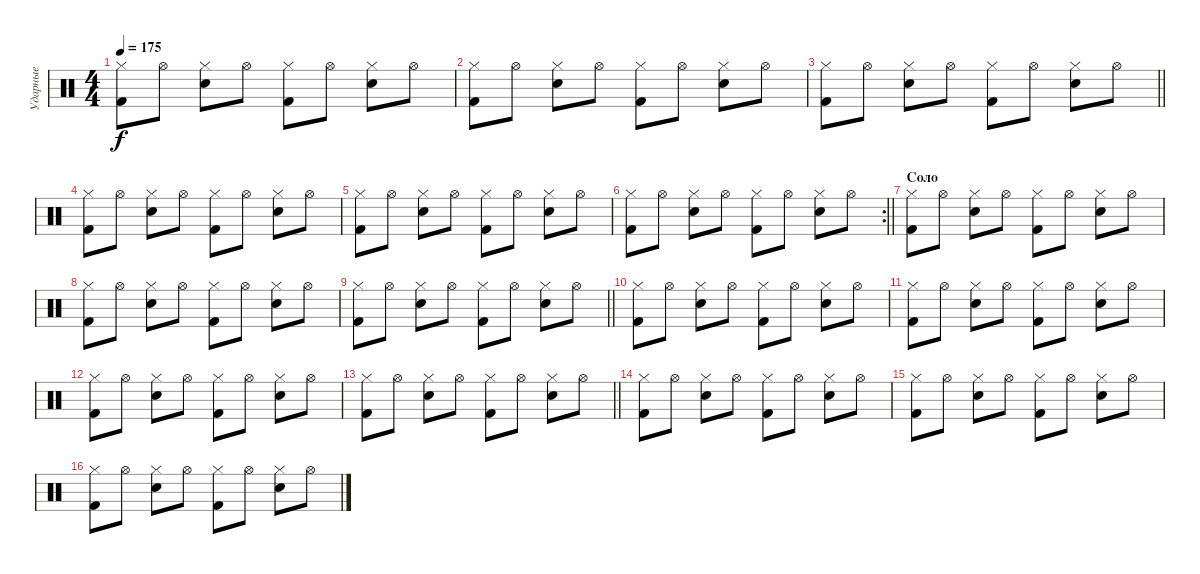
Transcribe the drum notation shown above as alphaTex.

\track ("Ударные" "Ударные") {instrument percussion}
\staff {score}
\articulation defaults
\ts (4 4)
\tempo 175
\clef neutral
\ks c
("Hi-Hat (closed)" "Kick (hit) 2").8{dy f} "Hi-Hat (open)".8 ("Hi-Hat (closed)" "Electric Snare (hit)").8 "Hi-Hat (open)".8 ("Hi-Hat (closed)" "Kick (hit) 2").8 "Hi-Hat (open)".8 ("Hi-Hat (closed)" "Electric Snare (hit)").8 "Hi-Hat (open)".8 |
("Hi-Hat (closed)" "Kick (hit) 2").8 "Hi-Hat (open)".8 ("Hi-Hat (closed)" "Electric Snare (hit)").8 "Hi-Hat (open)".8 ("Hi-Hat (closed)" "Kick (hit) 2").8 "Hi-Hat (open)".8 ("Hi-Hat (closed)" "Electric Snare (hit)").8 "Hi-Hat (open)".8 |
\barLineRight lightlight
("Hi-Hat (closed)" "Kick (hit) 2").8 "Hi-Hat (open)".8 ("Hi-Hat (closed)" "Electric Snare (hit)").8 "Hi-Hat (open)".8 ("Hi-Hat (closed)" "Kick (hit) 2").8 "Hi-Hat (open)".8 ("Hi-Hat (closed)" "Electric Snare (hit)").8 "Hi-Hat (open)".8 |
("Hi-Hat (closed)" "Kick (hit) 2").8 "Hi-Hat (open)".8 ("Hi-Hat (closed)" "Electric Snare (hit)").8 "Hi-Hat (open)".8 ("Hi-Hat (closed)" "Kick (hit) 2").8 "Hi-Hat (open)".8 ("Hi-Hat (closed)" "Electric Snare (hit)").8 "Hi-Hat (open)".8 |
("Hi-Hat (closed)" "Kick (hit) 2").8 "Hi-Hat (open)".8 ("Hi-Hat (closed)" "Electric Snare (hit)").8 "Hi-Hat (open)".8 ("Hi-Hat (closed)" "Kick (hit) 2").8 "Hi-Hat (open)".8 ("Hi-Hat (closed)" "Electric Snare (hit)").8 "Hi-Hat (open)".8 |
\rc 2
\barLineRight lightlight
("Hi-Hat (closed)" "Kick (hit) 2").8 "Hi-Hat (open)".8 ("Hi-Hat (closed)" "Electric Snare (hit)").8 "Hi-Hat (open)".8 ("Hi-Hat (closed)" "Kick (hit) 2").8 "Hi-Hat (open)".8 ("Hi-Hat (closed)" "Electric Snare (hit)").8 "Hi-Hat (open)".8 |
\section ("" "Соло")
("Hi-Hat (closed)" "Kick (hit) 2").8 "Hi-Hat (open)".8 ("Hi-Hat (closed)" "Electric Snare (hit)").8 "Hi-Hat (open)".8 ("Hi-Hat (closed)" "Kick (hit) 2").8 "Hi-Hat (open)".8 ("Hi-Hat (closed)" "Electric Snare (hit)").8 "Hi-Hat (open)".8 |
("Hi-Hat (closed)" "Kick (hit) 2").8 "Hi-Hat (open)".8 ("Hi-Hat (closed)" "Electric Snare (hit)").8 "Hi-Hat (open)".8 ("Hi-Hat (closed)" "Kick (hit) 2").8 "Hi-Hat (open)".8 ("Hi-Hat (closed)" "Electric Snare (hit)").8 "Hi-Hat (open)".8 |
\barLineRight lightlight
("Hi-Hat (closed)" "Kick (hit) 2").8 "Hi-Hat (open)".8 ("Hi-Hat (closed)" "Electric Snare (hit)").8 "Hi-Hat (open)".8 ("Hi-Hat (closed)" "Kick (hit) 2").8 "Hi-Hat (open)".8 ("Hi-Hat (closed)" "Electric Snare (hit)").8 "Hi-Hat (open)".8 |
("Hi-Hat (closed)" "Kick (hit) 2").8 "Hi-Hat (open)".8 ("Hi-Hat (closed)" "Electric Snare (hit)").8 "Hi-Hat (open)".8 ("Hi-Hat (closed)" "Kick (hit) 2").8 "Hi-Hat (open)".8 ("Hi-Hat (closed)" "Electric Snare (hit)").8 "Hi-Hat (open)".8 |
("Hi-Hat (closed)" "Kick (hit) 2").8 "Hi-Hat (open)".8 ("Hi-Hat (closed)" "Electric Snare (hit)").8 "Hi-Hat (open)".8 ("Hi-Hat (closed)" "Kick (hit) 2").8 "Hi-Hat (open)".8 ("Hi-Hat (closed)" "Electric Snare (hit)").8 "Hi-Hat (open)".8 |
("Hi-Hat (closed)" "Kick (hit) 2").8 "Hi-Hat (open)".8 ("Hi-Hat (closed)" "Electric Snare (hit)").8 "Hi-Hat (open)".8 ("Hi-Hat (closed)" "Kick (hit) 2").8 "Hi-Hat (open)".8 ("Hi-Hat (closed)" "Electric Snare (hit)").8 "Hi-Hat (open)".8 |
\barLineRight lightlight
("Hi-Hat (closed)" "Kick (hit) 2").8 "Hi-Hat (open)".8 ("Hi-Hat (closed)" "Electric Snare (hit)").8 "Hi-Hat (open)".8 ("Hi-Hat (closed)" "Kick (hit) 2").8 "Hi-Hat (open)".8 ("Hi-Hat (closed)" "Electric Snare (hit)").8 "Hi-Hat (open)".8 |
("Hi-Hat (closed)" "Kick (hit) 2").8 "Hi-Hat (open)".8 ("Hi-Hat (closed)" "Electric Snare (hit)").8 "Hi-Hat (open)".8 ("Hi-Hat (closed)" "Kick (hit) 2").8 "Hi-Hat (open)".8 ("Hi-Hat (closed)" "Electric Snare (hit)").8 "Hi-Hat (open)".8 |
("Hi-Hat (closed)" "Kick (hit) 2").8 "Hi-Hat (open)".8 ("Hi-Hat (closed)" "Electric Snare (hit)").8 "Hi-Hat (open)".8 ("Hi-Hat (closed)" "Kick (hit) 2").8 "Hi-Hat (open)".8 ("Hi-Hat (closed)" "Electric Snare (hit)").8 "Hi-Hat (open)".8 |
("Hi-Hat (closed)" "Kick (hit) 2").8 "Hi-Hat (open)".8 ("Hi-Hat (closed)" "Electric Snare (hit)").8 "Hi-Hat (open)".8 ("Hi-Hat (closed)" "Kick (hit) 2").8 "Hi-Hat (open)".8 ("Hi-Hat (closed)" "Electric Snare (hit)").8 "Hi-Hat (open)".8
